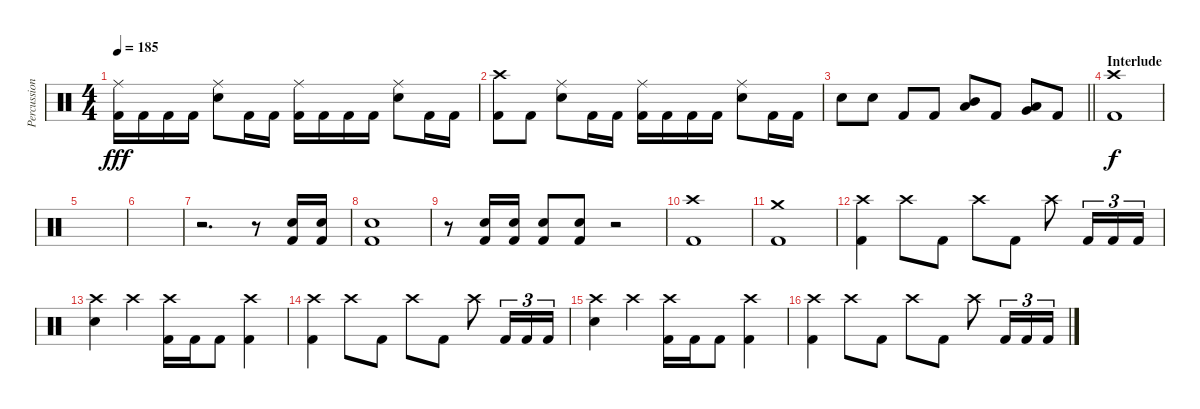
\track ("Percussion" "Percussion") {instrument percussion}
\staff {score}
\articulation defaults
\ts (4 4)
\tempo 185
\clef neutral
\ks c
("Ride (middle)" "Kick (hit) 2").16{dy fff} "Kick (hit) 2".16 "Kick (hit) 2".16 "Kick (hit) 2".16 ("Ride (middle)" "Electric Snare (hit)").8 "Kick (hit) 2".16 "Kick (hit) 2".16 ("Ride (middle)" "Kick (hit) 2").16 "Kick (hit) 2".16 "Kick (hit) 2".16 "Kick (hit) 2".16 ("Ride (middle)" "Electric Snare (hit)").8 "Kick (hit) 2".16 "Kick (hit) 2".16 |
("Crash high (hit)" "Kick (hit) 2").8 "Kick (hit) 2".8 ("Ride (middle)" "Electric Snare (hit)").8 "Kick (hit) 2".16 "Kick (hit) 2".16 ("Ride (middle)" "Kick (hit) 2").16 "Kick (hit) 2".16 "Kick (hit) 2".16 "Kick (hit) 2".16 ("Ride (middle)" "Electric Snare (hit)").8 "Kick (hit) 2".16 "Kick (hit) 2".16 |
\barLineRight lightlight "Electric Snare (hit)".8 "Electric Snare (hit)".8 "Kick (hit) 2".8 "Kick (hit) 2".8
("Mid Tom (hit)" "Low Tom (hit)").8 "Kick (hit) 2".8 ("Low Tom (hit)" "Very Low Tom (hit)").8 "Kick (hit) 2".8 |
\section ("" "Interlude")
("Crash high (hit)" "Kick (hit) 2").1{dy f} |
|
|
r.2{d} r.8 ("Electric Snare (hit)" "Kick (hit) 2").16 ("Electric Snare (hit)" "Kick (hit) 2").16 |
("Electric Snare (hit)" "Kick (hit) 2").1 |
r.8 ("Electric Snare (hit)" "Kick (hit) 2").16 ("Electric Snare (hit)" "Kick (hit) 2").16 ("Electric Snare (hit)" "Kick (hit) 2").8 ("Electric Snare (hit)" "Kick (hit) 2").8 r.2 |
("Crash high (hit)" "Kick (hit) 2").1 |
("Crash medium (hit)" "Kick (hit) 2").1 |
("Crash high (hit)" "Kick (hit) 2").4 "Crash high (hit)".8 "Kick (hit) 2".8 "Crash high (hit)".8 "Kick (hit) 2".8 "Crash high (hit)".8 "Kick (hit) 2".16{tu (3 2)} "Kick (hit) 2".16{tu (3 2)} "Kick (hit) 2".16{tu (3 2)} |
("Crash high (hit)" "Electric Snare (hit)").4 "Crash high (hit)".4 ("Crash high (hit)" "Kick (hit) 2").16 "Kick (hit) 2".16 "Kick (hit) 2".8 ("Crash high (hit)" "Kick (hit) 2").4 |
("Crash high (hit)" "Kick (hit) 2").4 "Crash high (hit)".8 "Kick (hit) 2".8 "Crash high (hit)".8 "Kick (hit) 2".8 "Crash high (hit)".8 "Kick (hit) 2".16{tu (3 2)} "Kick (hit) 2".16{tu (3 2)} "Kick (hit) 2".16{tu (3 2)} |
("Crash high (hit)" "Electric Snare (hit)").4 "Crash high (hit)".4 ("Crash high (hit)" "Kick (hit) 2").16 "Kick (hit) 2".16 "Kick (hit) 2".8 ("Crash high (hit)" "Kick (hit) 2").4 |
("Crash high (hit)" "Kick (hit) 2").4 "Crash high (hit)".8 "Kick (hit) 2".8 "Crash high (hit)".8 "Kick (hit) 2".8 "Crash high (hit)".8 "Kick (hit) 2".16{tu (3 2)} "Kick (hit) 2".16{tu (3 2)} "Kick (hit) 2".16{tu (3 2)}
